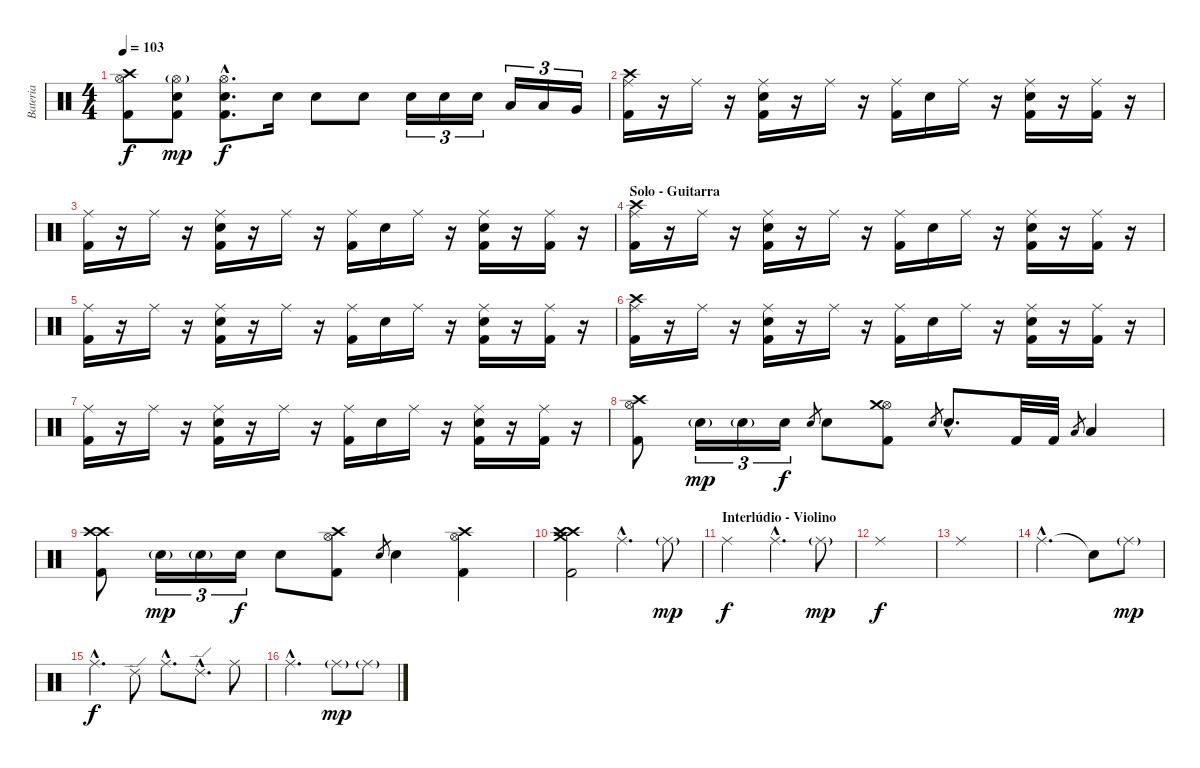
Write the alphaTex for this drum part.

\track ("Bateria" "Bateria") {instrument percussion}
\staff {score}
\articulation defaults
\ts (4 4)
\tempo 103
\clef neutral
\ks c
("Hi-Hat (open)" "Kick (hit) 2" "Crash high (hit)").8{dy f} ("Hi-Hat (open)"{g} "Snare (hit) 2" "Kick (hit) 2").8{dy mp} ("Hi-Hat (open)"{hac} "Snare (hit) 2"{hac} "Kick (hit) 2"{hac}).8{d dy f} "Snare (hit) 2".16 "Snare (hit) 2".8 "Snare (hit) 2".8 "Snare (hit) 2".16{tu (3 2)} "Snare (hit) 2".16{tu (3 2)} "Snare (hit) 2".16{tu (3 2)} "Low Tom (hit)".16{tu (3 2)} "Low Tom (hit)".16{tu (3 2)} "Very Low Tom (hit)".16{tu (3 2)} |
("Ride (middle)" "Kick (hit) 2" "Crash high (hit)").16 r.16 "Ride (middle)".16 r.16 ("Ride (middle)" "Snare (hit) 2" "Kick (hit) 2").16 r.16 "Ride (middle)".16 r.16 ("Ride (middle)" "Kick (hit) 2").16 "Snare (hit) 2".16 "Ride (middle)".16 r.16 ("Ride (middle)" "Snare (hit) 2" "Kick (hit) 2").16 r.16 ("Ride (middle)" "Kick (hit) 2").16 r.16 |
("Ride (middle)" "Kick (hit) 2").16 r.16 "Ride (middle)".16 r.16 ("Ride (middle)" "Snare (hit) 2" "Kick (hit) 2").16 r.16 "Ride (middle)".16 r.16 ("Ride (middle)" "Kick (hit) 2").16 "Snare (hit) 2".16 "Ride (middle)".16 r.16 ("Ride (middle)" "Snare (hit) 2" "Kick (hit) 2").16 r.16 ("Ride (middle)" "Kick (hit) 2").16 r.16 |
\section ("" "Solo - Guitarra")
("Ride (middle)" "Kick (hit) 2" "Crash high (hit)").16 r.16 "Ride (middle)".16 r.16 ("Ride (middle)" "Snare (hit) 2" "Kick (hit) 2").16 r.16 "Ride (middle)".16 r.16 ("Ride (middle)" "Kick (hit) 2").16 "Snare (hit) 2".16 "Ride (middle)".16 r.16 ("Ride (middle)" "Snare (hit) 2" "Kick (hit) 2").16 r.16 ("Ride (middle)" "Kick (hit) 2").16 r.16 |
("Ride (middle)" "Kick (hit) 2").16 r.16 "Ride (middle)".16 r.16 ("Ride (middle)" "Snare (hit) 2" "Kick (hit) 2").16 r.16 "Ride (middle)".16 r.16 ("Ride (middle)" "Kick (hit) 2").16 "Snare (hit) 2".16 "Ride (middle)".16 r.16 ("Ride (middle)" "Snare (hit) 2" "Kick (hit) 2").16 r.16 ("Ride (middle)" "Kick (hit) 2").16 r.16 |
("Ride (middle)" "Kick (hit) 2" "Crash high (hit)").16 r.16 "Ride (middle)".16 r.16 ("Ride (middle)" "Snare (hit) 2" "Kick (hit) 2").16 r.16 "Ride (middle)".16 r.16 ("Ride (middle)" "Kick (hit) 2").16 "Snare (hit) 2".16 "Ride (middle)".16 r.16 ("Ride (middle)" "Snare (hit) 2" "Kick (hit) 2").16 r.16 ("Ride (middle)" "Kick (hit) 2").16 r.16 |
("Ride (middle)" "Kick (hit) 2").16 r.16 "Ride (middle)".16 r.16 ("Ride (middle)" "Snare (hit) 2" "Kick (hit) 2").16 r.16 "Ride (middle)".16 r.16 ("Ride (middle)" "Kick (hit) 2").16 "Snare (hit) 2".16 "Ride (middle)".16 r.16 ("Ride (middle)" "Snare (hit) 2" "Kick (hit) 2").16 r.16 ("Ride (middle)" "Kick (hit) 2").16 r.16 |
("Hi-Hat (open)" "Kick (hit) 2" "Crash high (hit)").8 "Snare (hit) 2"{g}.16{tu (3 2) dy mp} "Snare (hit) 2"{g}.16{tu (3 2)} "Snare (hit) 2".16{tu (3 2) dy f} "Snare (hit) 2".8{gr} "Snare (hit) 2".8 ("Hi-Hat (open)" "Kick (hit) 2" "Crash medium (hit)").8 "Snare (hit) 2".8{gr} "Snare (hit) 2"{hac}.8{d} "Kick (hit) 2".32 "Kick (hit) 2".32 "Low Tom (hit)".8{gr} "Low Tom (hit)".4 |
("Crash high (hit)" "Kick (hit) 2" "Crash high (hit)").8 "Snare (hit) 2"{g}.16{tu (3 2) dy mp} "Snare (hit) 2"{g}.16{tu (3 2)} "Snare (hit) 2".16{tu (3 2) dy f} "Snare (hit) 2".8 ("Hi-Hat (open)" "Kick (hit) 2" "Crash high (hit)").8 "Snare (hit) 2".8{gr} "Snare (hit) 2".4 ("Hi-Hat (open)" "Kick (hit) 2" "Crash high (hit)").4 |
("Crash high (hit)" "Kick (hit) 2" "Crash medium (hit)" "Crash high (hit)").2 "Ride (middle)"{hac}.4{d} "Ride (middle)"{g}.8{dy mp} |
\section ("" "Interlúdio - Violino")
"Ride (middle)".2{dy f} "Ride (middle)"{hac}.4{d} "Ride (middle)"{g}.8{dy mp} |
"Ride (middle)".1{dy f} |
"Ride (middle)".1 |
"Ride (middle)"{hac}.2{d} "Snare (hit)"{t}.8 "Ride (middle)"{g}.8{dy mp} |
"Ride (middle)"{hac}.4{d dy f} "Ride (edge) 2".8 "Ride (middle)"{hac}.8{d} "Ride (edge) 2"{hac}.8{d} "Ride (middle)".8 |
"Ride (middle)"{hac}.2{d} "Ride (middle)"{g}.8{dy mp} "Ride (middle)"{g}.8
